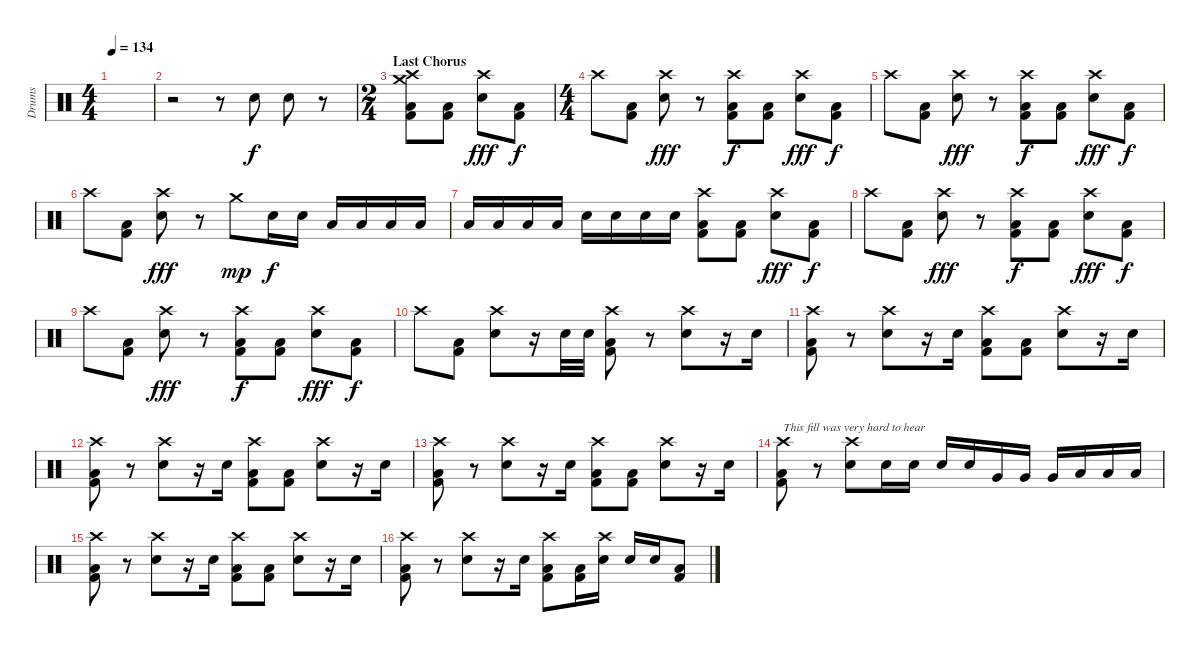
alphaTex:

\track ("Drums" "Drums") {instrument percussion}
\staff {score}
\articulation defaults
\ts (4 4)
\tempo 134
\clef neutral
\ks c
|
r.2 r.8 "Snare (hit) 2".8 "Snare (hit) 2".8 r.8 |
\ts (2 4)
\section ("" "Last Chorus")
("Crash medium (hit)" "Crash high (hit)" "Kick (hit) 2" "Low Floor Tom (hit)").8 ("Kick (hit) 2" "Low Floor Tom (hit)").8 ("Crash high (hit)" "Snare (hit) 2").8{dy fff} ("Kick (hit) 2" "Low Floor Tom (hit)").8{dy f} |
\ts (4 4)
"Crash high (hit)".8 ("Kick (hit) 2" "Low Floor Tom (hit)").8 ("Crash high (hit)" "Snare (hit) 2").8{dy fff} r.8 ("Crash high (hit)" "Kick (hit) 2" "Low Floor Tom (hit)").8{dy f} ("Kick (hit) 2" "Low Floor Tom (hit)").8 ("Crash high (hit)" "Snare (hit) 2").8{dy fff} ("Kick (hit) 2" "Low Floor Tom (hit)").8{dy f} |
"Crash high (hit)".8 ("Kick (hit) 2" "Low Floor Tom (hit)").8 ("Crash high (hit)" "Snare (hit) 2").8{dy fff} r.8 ("Crash high (hit)" "Kick (hit) 2" "Low Floor Tom (hit)").8{dy f} ("Kick (hit) 2" "Low Floor Tom (hit)").8 ("Crash high (hit)" "Snare (hit) 2").8{dy fff} ("Kick (hit) 2" "Low Floor Tom (hit)").8{dy f} |
"Crash high (hit)".8 ("Kick (hit) 2" "Low Floor Tom (hit)").8 ("Crash high (hit)" "Snare (hit) 2").8{dy fff} r.8 "Crash medium (hit)".8{dy mp} "Snare (hit) 2".16{dy f} "Snare (hit) 2".16 "Low Floor Tom (hit)".16 "Low Floor Tom (hit)".16 "Low Floor Tom (hit)".16 "Low Floor Tom (hit)".16 |
"Low Floor Tom (hit)".16 "Low Floor Tom (hit)".16 "Low Floor Tom (hit)".16 "Low Floor Tom (hit)".16 "Snare (hit) 2".16 "Snare (hit) 2".16 "Snare (hit) 2".16 "Snare (hit) 2".16 ("Crash high (hit)" "Kick (hit) 2" "Low Floor Tom (hit)").8 ("Kick (hit) 2" "Low Floor Tom (hit)").8 ("Crash high (hit)" "Snare (hit) 2").8{dy fff} ("Kick (hit) 2" "Low Floor Tom (hit)").8{dy f} |
"Crash high (hit)".8 ("Kick (hit) 2" "Low Floor Tom (hit)").8 ("Crash high (hit)" "Snare (hit) 2").8{dy fff} r.8 ("Crash high (hit)" "Kick (hit) 2" "Low Floor Tom (hit)").8{dy f} ("Kick (hit) 2" "Low Floor Tom (hit)").8 ("Crash high (hit)" "Snare (hit) 2").8{dy fff} ("Kick (hit) 2" "Low Floor Tom (hit)").8{dy f} |
"Crash high (hit)".8 ("Kick (hit) 2" "Low Floor Tom (hit)").8 ("Crash high (hit)" "Snare (hit) 2").8{dy fff} r.8 ("Crash high (hit)" "Kick (hit) 2" "Low Floor Tom (hit)").8{dy f} ("Kick (hit) 2" "Low Floor Tom (hit)").8 ("Crash high (hit)" "Snare (hit) 2").8{dy fff} ("Kick (hit) 2" "Low Floor Tom (hit)").8{dy f} |
"Crash high (hit)".8 ("Kick (hit) 2" "Low Floor Tom (hit)").8 ("Crash high (hit)" "Snare (hit) 2").8 r.16 "Snare (hit) 2".32 "Snare (hit) 2".32 ("Crash high (hit)" "Kick (hit) 2" "Low Floor Tom (hit)").8 r.8 ("Crash high (hit)" "Snare (hit) 2").8 r.16 "Snare (hit) 2".16 |
("Crash high (hit)" "Kick (hit) 2" "Low Floor Tom (hit)").8 r.8 ("Crash high (hit)" "Snare (hit) 2").8 r.16 "Snare (hit) 2".16 ("Crash high (hit)" "Kick (hit) 2" "Low Floor Tom (hit)").8 ("Kick (hit) 2" "Low Floor Tom (hit)").8 ("Crash high (hit)" "Snare (hit) 2").8 r.16 "Snare (hit) 2".16 |
("Crash high (hit)" "Kick (hit) 2" "Low Floor Tom (hit)").8 r.8 ("Crash high (hit)" "Snare (hit) 2").8 r.16 "Snare (hit) 2".16 ("Crash high (hit)" "Kick (hit) 2" "Low Floor Tom (hit)").8 ("Kick (hit) 2" "Low Floor Tom (hit)").8 ("Crash high (hit)" "Snare (hit) 2").8 r.16 "Snare (hit) 2".16 |
("Crash high (hit)" "Kick (hit) 2" "Low Floor Tom (hit)").8 r.8 ("Crash high (hit)" "Snare (hit) 2").8 r.16 "Snare (hit) 2".16 ("Crash high (hit)" "Kick (hit) 2" "Low Floor Tom (hit)").8 ("Kick (hit) 2" "Low Floor Tom (hit)").8 ("Crash high (hit)" "Snare (hit) 2").8 r.16 "Snare (hit) 2".16 |
("Crash high (hit)" "Kick (hit) 2" "Low Floor Tom (hit)").8{txt "This fill was very hard to hear"} r.8 ("Crash high (hit)" "Snare (hit) 2").8 "Snare (hit) 2".16 "Snare (hit) 2".16 "Snare (hit) 2".16 "Snare (hit) 2".16 "Very Low Tom (hit)".16 "Very Low Tom (hit)".16 "Very Low Tom (hit)".16 "Low Floor Tom (hit)".16 "Low Floor Tom (hit)".16 "Low Floor Tom (hit)".16 |
("Crash high (hit)" "Kick (hit) 2" "Low Floor Tom (hit)").8 r.8 ("Crash high (hit)" "Snare (hit) 2").8 r.16 "Snare (hit) 2".16 ("Crash high (hit)" "Kick (hit) 2" "Low Floor Tom (hit)").8 ("Kick (hit) 2" "Low Floor Tom (hit)").8 ("Crash high (hit)" "Snare (hit) 2").8 r.16 "Snare (hit) 2".16 |
("Crash high (hit)" "Kick (hit) 2" "Low Floor Tom (hit)").8 r.8 ("Crash high (hit)" "Snare (hit) 2").8 r.16 "Snare (hit) 2".16 ("Crash high (hit)" "Kick (hit) 2" "Low Floor Tom (hit)").8 ("Kick (hit) 2" "Low Floor Tom (hit)").16 ("Crash high (hit)" "Snare (hit) 2").16 "Snare (hit) 2".16 "Snare (hit) 2".16 ("Kick (hit) 2" "Low Floor Tom (hit)").8
